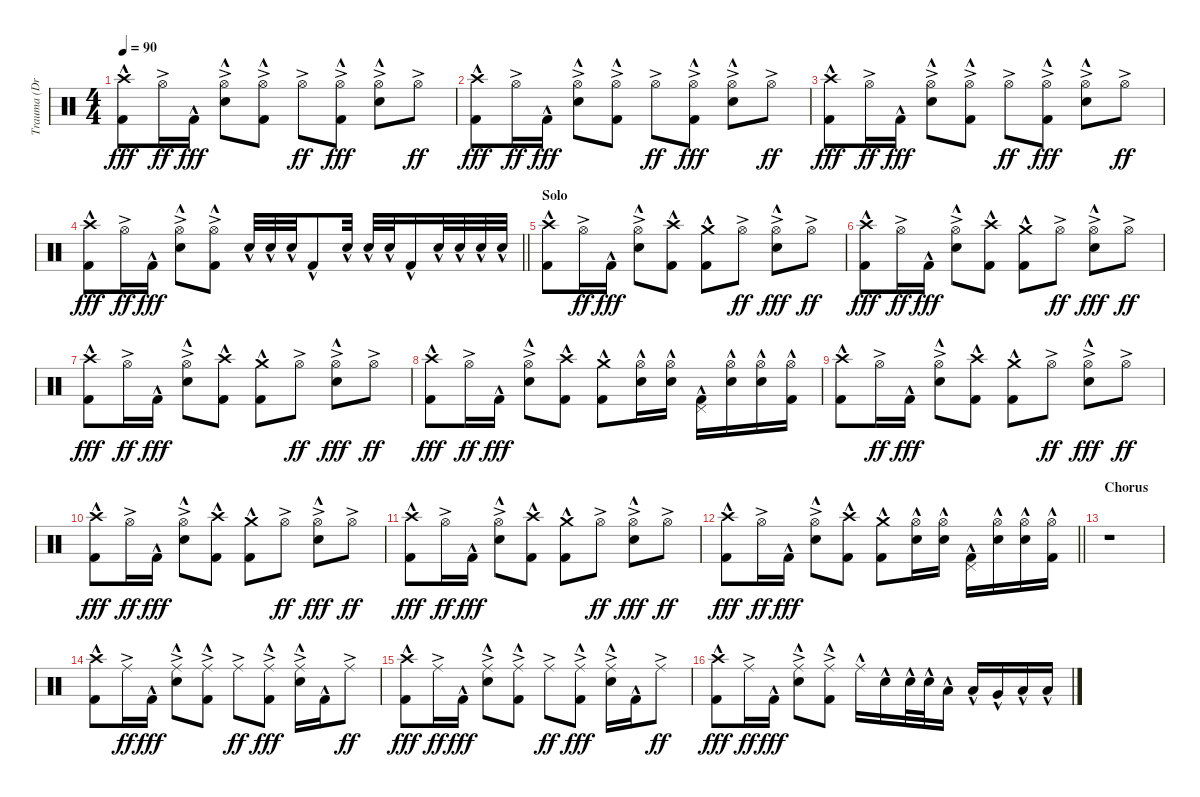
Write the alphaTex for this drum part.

\track ("Trauma (Drums)" "Trauma (Dr") {instrument percussion}
\staff {score}
\articulation defaults
\ts (4 4)
\tempo 90
\clef neutral
\ks c
("Crash high (hit)"{hac} "Kick (hit) 2"{hac}).8{dy fff} "Hi-Hat (open)"{ac}.16{dy ff} "Kick (hit) 2"{hac}.16{dy fff} ("Hi-Hat (open)"{ac} "Snare (hit) 2"{hac}).8 ("Hi-Hat (open)"{ac} "Kick (hit) 2"{hac}).8 "Hi-Hat (open)"{ac}.8{dy ff} ("Hi-Hat (open)"{ac} "Kick (hit) 2"{hac}).8{dy fff} ("Hi-Hat (open)"{ac} "Snare (hit) 2"{hac}).8 "Hi-Hat (open)"{ac}.8{dy ff} |
("Crash high (hit)"{hac} "Kick (hit) 2"{hac}).8{dy fff} "Hi-Hat (open)"{ac}.16{dy ff} "Kick (hit) 2"{hac}.16{dy fff} ("Hi-Hat (open)"{ac} "Snare (hit) 2"{hac}).8 ("Hi-Hat (open)"{ac} "Kick (hit) 2"{hac}).8 "Hi-Hat (open)"{ac}.8{dy ff} ("Hi-Hat (open)"{ac} "Kick (hit) 2"{hac}).8{dy fff} ("Hi-Hat (open)"{ac} "Snare (hit) 2"{hac}).8 "Hi-Hat (open)"{ac}.8{dy ff} |
("Crash high (hit)"{hac} "Kick (hit) 2"{hac}).8{dy fff} "Hi-Hat (open)"{ac}.16{dy ff} "Kick (hit) 2"{hac}.16{dy fff} ("Hi-Hat (open)"{ac} "Snare (hit) 2"{hac}).8 ("Hi-Hat (open)"{ac} "Kick (hit) 2"{hac}).8 "Hi-Hat (open)"{ac}.8{dy ff} ("Hi-Hat (open)"{ac} "Kick (hit) 2"{hac}).8{dy fff} ("Hi-Hat (open)"{ac} "Snare (hit) 2"{hac}).8 "Hi-Hat (open)"{ac}.8{dy ff} |
\barLineRight lightlight
("Crash high (hit)"{hac} "Kick (hit) 2"{hac}).8{dy fff} "Hi-Hat (open)"{ac}.16{dy ff} "Kick (hit) 2"{hac}.16{dy fff} ("Hi-Hat (open)"{ac} "Snare (hit) 2"{hac}).8 ("Hi-Hat (open)"{ac} "Kick (hit) 2"{hac}).8 "Snare (hit) 2"{hac}.32 "Snare (hit) 2"{hac}.32 "Snare (hit) 2"{hac}.32 "Kick (hit) 2"{hac}.8 "Snare (hit) 2"{hac}.32 "Snare (hit) 2"{hac}.32 "Snare (hit) 2"{hac}.32 "Kick (hit) 2"{hac}.16 "Snare (hit) 2"{hac}.32 "Snare (hit) 2"{hac}.32 "Snare (hit) 2"{hac}.32 "Snare (hit) 2"{hac}.32 |
\section ("" "Solo")
("Crash high (hit)"{hac} "Kick (hit) 2"{hac}).8 "Hi-Hat (open)"{ac}.16{dy ff} "Kick (hit) 2"{hac}.16{dy fff} ("Hi-Hat (open)"{ac} "Snare (hit) 2"{hac}).8 ("Crash high (hit)"{hac} "Kick (hit) 2"{hac}).8 ("Crash medium (hit)"{hac} "Kick (hit) 2"{hac}).8 "Hi-Hat (open)"{ac}.8{dy ff} ("Hi-Hat (open)"{ac} "Snare (hit) 2"{hac}).8{dy fff} "Hi-Hat (open)"{ac}.8{dy ff} |
("Crash high (hit)"{hac} "Kick (hit) 2"{hac}).8{dy fff} "Hi-Hat (open)"{ac}.16{dy ff} "Kick (hit) 2"{hac}.16{dy fff} ("Hi-Hat (open)"{ac} "Snare (hit) 2"{hac}).8 ("Crash high (hit)"{hac} "Kick (hit) 2"{hac}).8 ("Crash medium (hit)"{hac} "Kick (hit) 2"{hac}).8 "Hi-Hat (open)"{ac}.8{dy ff} ("Hi-Hat (open)"{ac} "Snare (hit) 2"{hac}).8{dy fff} "Hi-Hat (open)"{ac}.8{dy ff} |
("Crash high (hit)"{hac} "Kick (hit) 2"{hac}).8{dy fff} "Hi-Hat (open)"{ac}.16{dy ff} "Kick (hit) 2"{hac}.16{dy fff} ("Hi-Hat (open)"{ac} "Snare (hit) 2"{hac}).8 ("Crash high (hit)"{hac} "Kick (hit) 2"{hac}).8 ("Crash medium (hit)"{hac} "Kick (hit) 2"{hac}).8 "Hi-Hat (open)"{ac}.8{dy ff} ("Hi-Hat (open)"{ac} "Snare (hit) 2"{hac}).8{dy fff} "Hi-Hat (open)"{ac}.8{dy ff} |
("Crash high (hit)"{hac} "Kick (hit) 2"{hac}).8{dy fff} "Hi-Hat (open)"{ac}.16{dy ff} "Kick (hit) 2"{hac}.16{dy fff} ("Hi-Hat (open)"{ac} "Snare (hit) 2"{hac}).8 ("Crash high (hit)"{hac} "Kick (hit) 2"{hac}).8 ("Crash medium (hit)"{hac} "Kick (hit) 2"{hac}).8 ("Hi-Hat (open)"{hac} "Snare (hit) 2"{hac}).16 ("Hi-Hat (open)"{hac} "Snare (hit) 2"{hac}).16 ("Pedal Hi-Hat (hit)"{hac} "Kick (hit) 2"{hac}).16 ("Hi-Hat (open)"{hac} "Snare (hit) 2"{hac}).16 ("Hi-Hat (open)"{hac} "Snare (hit) 2"{hac}).16 ("Hi-Hat (open)"{hac} "Kick (hit) 2"{hac}).16 |
("Crash high (hit)"{hac} "Kick (hit) 2"{hac}).8 "Hi-Hat (open)"{ac}.16{dy ff} "Kick (hit) 2"{hac}.16{dy fff} ("Hi-Hat (open)"{ac} "Snare (hit) 2"{hac}).8 ("Crash high (hit)"{hac} "Kick (hit) 2"{hac}).8 ("Crash medium (hit)"{hac} "Kick (hit) 2"{hac}).8 "Hi-Hat (open)"{ac}.8{dy ff} ("Hi-Hat (open)"{ac} "Snare (hit) 2"{hac}).8{dy fff} "Hi-Hat (open)"{ac}.8{dy ff} |
("Crash high (hit)"{hac} "Kick (hit) 2"{hac}).8{dy fff} "Hi-Hat (open)"{ac}.16{dy ff} "Kick (hit) 2"{hac}.16{dy fff} ("Hi-Hat (open)"{ac} "Snare (hit) 2"{hac}).8 ("Crash high (hit)"{hac} "Kick (hit) 2"{hac}).8 ("Crash medium (hit)"{hac} "Kick (hit) 2"{hac}).8 "Hi-Hat (open)"{ac}.8{dy ff} ("Hi-Hat (open)"{ac} "Snare (hit) 2"{hac}).8{dy fff} "Hi-Hat (open)"{ac}.8{dy ff} |
("Crash high (hit)"{hac} "Kick (hit) 2"{hac}).8{dy fff} "Hi-Hat (open)"{ac}.16{dy ff} "Kick (hit) 2"{hac}.16{dy fff} ("Hi-Hat (open)"{ac} "Snare (hit) 2"{hac}).8 ("Crash high (hit)"{hac} "Kick (hit) 2"{hac}).8 ("Crash medium (hit)"{hac} "Kick (hit) 2"{hac}).8 "Hi-Hat (open)"{ac}.8{dy ff} ("Hi-Hat (open)"{ac} "Snare (hit) 2"{hac}).8{dy fff} "Hi-Hat (open)"{ac}.8{dy ff} |
\barLineRight lightlight
("Crash high (hit)"{hac} "Kick (hit) 2"{hac}).8{dy fff} "Hi-Hat (open)"{ac}.16{dy ff} "Kick (hit) 2"{hac}.16{dy fff} ("Hi-Hat (open)"{ac} "Snare (hit) 2"{hac}).8 ("Crash high (hit)"{hac} "Kick (hit) 2"{hac}).8 ("Crash medium (hit)"{hac} "Kick (hit) 2"{hac}).8 ("Hi-Hat (open)"{hac} "Snare (hit) 2"{hac}).16 ("Hi-Hat (open)"{hac} "Snare (hit) 2"{hac}).16 ("Pedal Hi-Hat (hit)"{hac} "Kick (hit) 2"{hac}).16 ("Hi-Hat (open)"{hac} "Snare (hit) 2"{hac}).16 ("Hi-Hat (open)"{hac} "Snare (hit) 2"{hac}).16 ("Hi-Hat (open)"{hac} "Kick (hit) 2"{hac}).16 |
\section ("" "Chorus")
r.1 |
("Crash high (hit)"{hac} "Kick (hit) 2"{hac}).8 "Ride (middle)"{ac}.16{dy ff} "Kick (hit) 2"{hac}.16{dy fff} ("Ride (middle)"{ac} "Snare (hit) 2"{hac}).8 ("Ride (middle)"{ac} "Kick (hit) 2"{hac}).8 "Ride (middle)"{ac}.8{dy ff} ("Ride (middle)"{ac} "Kick (hit) 2"{hac}).8{dy fff} ("Ride (middle)"{ac} "Snare (hit) 2"{hac}).16 "Kick (hit) 2"{hac}.16 "Ride (middle)"{ac}.8{dy ff} |
("Crash high (hit)"{hac} "Kick (hit) 2"{hac}).8{dy fff} "Ride (middle)"{ac}.16{dy ff} "Kick (hit) 2"{hac}.16{dy fff} ("Ride (middle)"{ac} "Snare (hit) 2"{hac}).8 ("Ride (middle)"{ac} "Kick (hit) 2"{hac}).8 "Ride (middle)"{ac}.8{dy ff} ("Ride (middle)"{ac} "Kick (hit) 2"{hac}).8{dy fff} ("Ride (middle)"{ac} "Snare (hit) 2"{hac}).16 "Kick (hit) 2"{hac}.16 "Ride (middle)"{ac}.8{dy ff} |
("Crash high (hit)"{hac} "Kick (hit) 2"{hac}).8{dy fff} "Ride (middle)"{ac}.16{dy ff} "Kick (hit) 2"{hac}.16{dy fff} ("Ride (middle)"{ac} "Snare (hit) 2"{hac}).8 ("Ride (middle)"{ac} "Kick (hit) 2"{hac}).8 "Ride (middle)"{hac}.16 "Snare (hit) 2"{hac}.16 "Snare (hit) 2"{hac}.32 "Snare (hit) 2"{hac}.32 "Low Tom (hit)"{hac}.16 "Low Tom (hit)"{hac}.16 "Very Low Tom (hit)"{hac}.16 "Low Floor Tom (hit)"{hac}.16 "Low Floor Tom (hit)"{hac}.16
